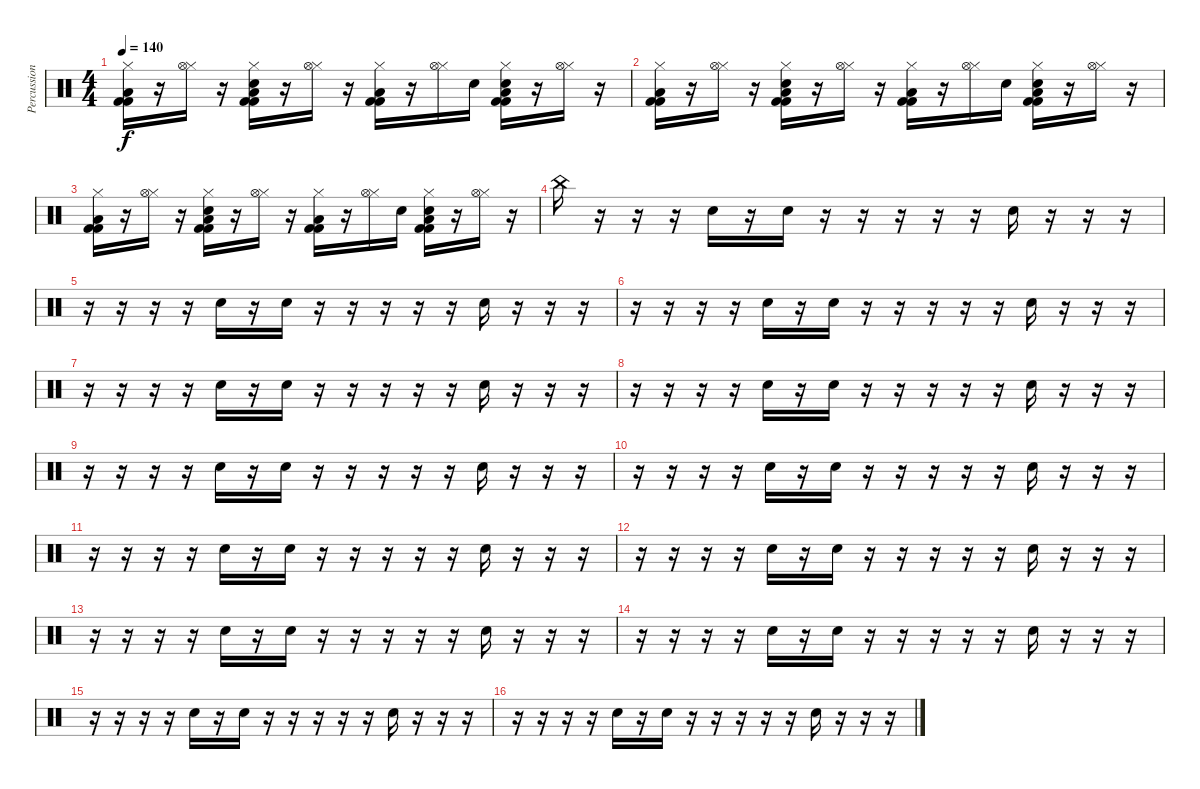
\track ("Percussion" "Percussion") {instrument percussion}
\staff {score}
\articulation defaults
\ts (4 4)
\tempo 140
\clef neutral
\ks c
("Hi-Hat (closed)" "Low Tom (hit)" "Kick (hit) 2" "Kick (hit) 2").16{dy f} r.16 ("Hi-Hat (closed)" "Hi-Hat (open)").16 r.16 ("Hi-Hat (closed)" "Low Tom (hit)" "Kick (hit) 2" "Kick (hit) 2" "Hand Clap (hit)").16 r.16 ("Hi-Hat (closed)" "Hi-Hat (open)").16 r.16 ("Hi-Hat (closed)" "Low Tom (hit)" "Kick (hit) 2" "Kick (hit) 2").16 r.16 ("Hi-Hat (closed)" "Hi-Hat (open)").16 "Hand Clap (hit)".16 ("Hi-Hat (closed)" "Low Tom (hit)" "Kick (hit) 2" "Kick (hit) 2" "Hand Clap (hit)").16 r.16 ("Hi-Hat (closed)" "Hi-Hat (open)").16 r.16 |
("Hi-Hat (closed)" "Low Tom (hit)" "Kick (hit) 2" "Kick (hit) 2").16 r.16 ("Hi-Hat (closed)" "Hi-Hat (open)").16 r.16 ("Hi-Hat (closed)" "Low Tom (hit)" "Kick (hit) 2" "Kick (hit) 2" "Hand Clap (hit)").16 r.16 ("Hi-Hat (closed)" "Hi-Hat (open)").16 r.16 ("Hi-Hat (closed)" "Low Tom (hit)" "Kick (hit) 2" "Kick (hit) 2").16 r.16 ("Hi-Hat (closed)" "Hi-Hat (open)").16 "Hand Clap (hit)".16 ("Hi-Hat (closed)" "Low Tom (hit)" "Kick (hit) 2" "Kick (hit) 2" "Hand Clap (hit)").16 r.16 ("Hi-Hat (closed)" "Hi-Hat (open)").16 r.16 |
("Hi-Hat (closed)" "Low Tom (hit)" "Kick (hit) 2" "Kick (hit) 2").16 r.16 ("Hi-Hat (closed)" "Hi-Hat (open)").16 r.16 ("Hi-Hat (closed)" "Low Tom (hit)" "Kick (hit) 2" "Kick (hit) 2" "Hand Clap (hit)").16 r.16 ("Hi-Hat (closed)" "Hi-Hat (open)").16 r.16 ("Hi-Hat (closed)" "Low Tom (hit)" "Kick (hit) 2" "Kick (hit) 2").16 r.16 ("Hi-Hat (closed)" "Hi-Hat (open)").16 "Hand Clap (hit)".16 ("Hi-Hat (closed)" "Low Tom (hit)" "Kick (hit) 2" "Kick (hit) 2" "Hand Clap (hit)").16 r.16 ("Hi-Hat (closed)" "Hi-Hat (open)").16 r.16 |
"China (hit)".16 r.16 r.16 r.16 "Hand Clap (hit)".16 r.16 "Hand Clap (hit)".16 r.16 r.16 r.16 r.16 r.16 "Hand Clap (hit)".16 r.16 r.16 r.16 |
r.16 r.16 r.16 r.16 "Hand Clap (hit)".16 r.16 "Hand Clap (hit)".16 r.16 r.16 r.16 r.16 r.16 "Hand Clap (hit)".16 r.16 r.16 r.16 |
r.16 r.16 r.16 r.16 "Hand Clap (hit)".16 r.16 "Hand Clap (hit)".16 r.16 r.16 r.16 r.16 r.16 "Hand Clap (hit)".16 r.16 r.16 r.16 |
r.16 r.16 r.16 r.16 "Hand Clap (hit)".16 r.16 "Hand Clap (hit)".16 r.16 r.16 r.16 r.16 r.16 "Hand Clap (hit)".16 r.16 r.16 r.16 |
r.16 r.16 r.16 r.16 "Hand Clap (hit)".16 r.16 "Hand Clap (hit)".16 r.16 r.16 r.16 r.16 r.16 "Hand Clap (hit)".16 r.16 r.16 r.16 |
r.16 r.16 r.16 r.16 "Hand Clap (hit)".16 r.16 "Hand Clap (hit)".16 r.16 r.16 r.16 r.16 r.16 "Hand Clap (hit)".16 r.16 r.16 r.16 |
r.16 r.16 r.16 r.16 "Hand Clap (hit)".16 r.16 "Hand Clap (hit)".16 r.16 r.16 r.16 r.16 r.16 "Hand Clap (hit)".16 r.16 r.16 r.16 |
r.16 r.16 r.16 r.16 "Hand Clap (hit)".16 r.16 "Hand Clap (hit)".16 r.16 r.16 r.16 r.16 r.16 "Hand Clap (hit)".16 r.16 r.16 r.16 |
r.16 r.16 r.16 r.16 "Hand Clap (hit)".16 r.16 "Hand Clap (hit)".16 r.16 r.16 r.16 r.16 r.16 "Hand Clap (hit)".16 r.16 r.16 r.16 |
r.16 r.16 r.16 r.16 "Hand Clap (hit)".16 r.16 "Hand Clap (hit)".16 r.16 r.16 r.16 r.16 r.16 "Hand Clap (hit)".16 r.16 r.16 r.16 |
r.16 r.16 r.16 r.16 "Hand Clap (hit)".16 r.16 "Hand Clap (hit)".16 r.16 r.16 r.16 r.16 r.16 "Hand Clap (hit)".16 r.16 r.16 r.16 |
r.16 r.16 r.16 r.16 "Hand Clap (hit)".16 r.16 "Hand Clap (hit)".16 r.16 r.16 r.16 r.16 r.16 "Hand Clap (hit)".16 r.16 r.16 r.16 |
r.16 r.16 r.16 r.16 "Hand Clap (hit)".16 r.16 "Hand Clap (hit)".16 r.16 r.16 r.16 r.16 r.16 "Hand Clap (hit)".16 r.16 r.16 r.16
